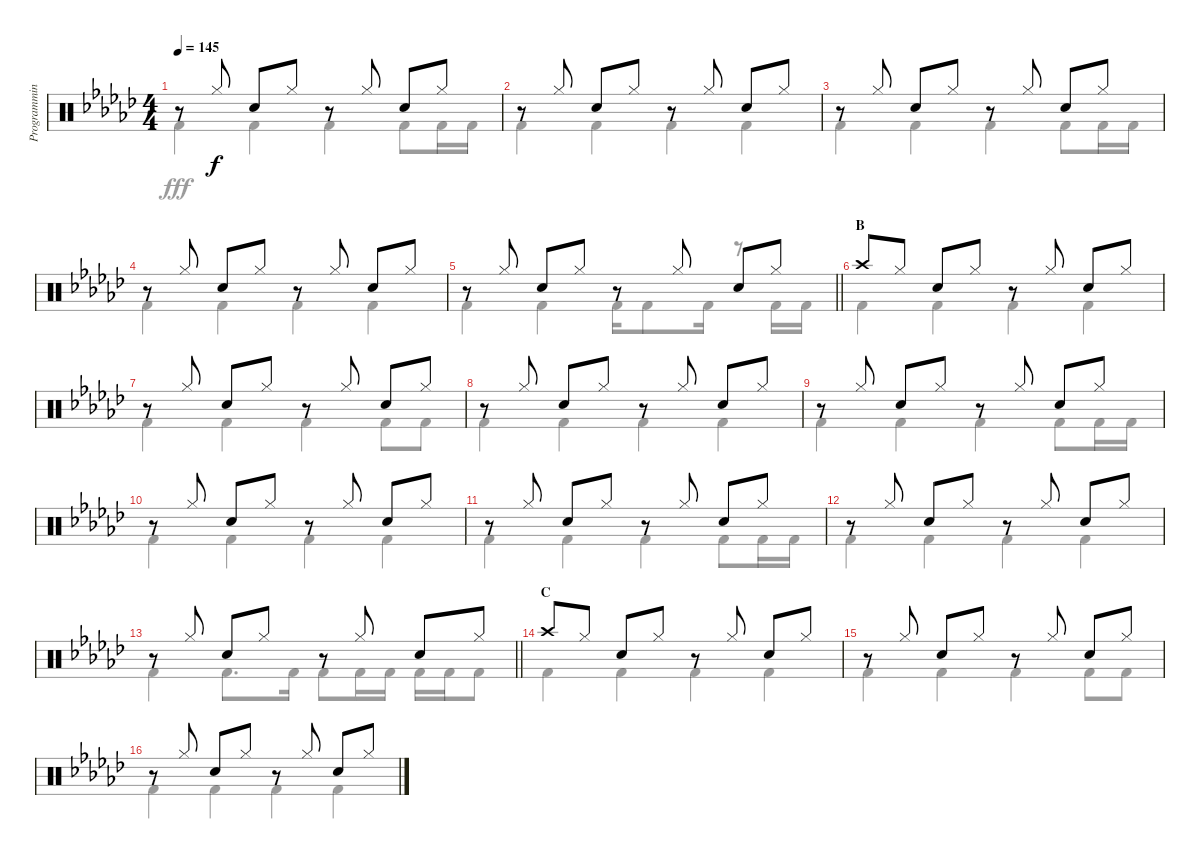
\track ("Programming Drums I" "Programmin") {instrument percussion}
\staff {score}
\articulation defaults
\voice
\ts (4 4)
\tempo 145
\clef neutral
\ks gb
r.8{dy f} "Hi-Hat (closed)".8 "Snare (hit) 2".8 "Hi-Hat (closed)".8 r.8 "Hi-Hat (closed)".8 "Snare (hit) 2".8 "Hi-Hat (closed)".8 |
r.8 "Hi-Hat (closed)".8 "Snare (hit) 2".8 "Hi-Hat (closed)".8 r.8 "Hi-Hat (closed)".8 "Snare (hit) 2".8 "Hi-Hat (closed)".8 |
r.8 "Hi-Hat (closed)".8 "Snare (hit) 2".8 "Hi-Hat (closed)".8 r.8 "Hi-Hat (closed)".8 "Snare (hit) 2".8 "Hi-Hat (closed)".8 |
r.8 "Hi-Hat (closed)".8 "Snare (hit) 2".8 "Hi-Hat (closed)".8 r.8 "Hi-Hat (closed)".8 "Snare (hit) 2".8 "Hi-Hat (closed)".8 |
\barLineRight lightlight
r.8 "Hi-Hat (closed)".8 "Snare (hit) 2".8 "Hi-Hat (closed)".8 r.8 "Hi-Hat (closed)".8 "Snare (hit) 2".8 "Hi-Hat (closed)".8 |
\section ("" "B")
"Crash high (hit)".8 "Hi-Hat (closed)".8 "Snare (hit) 2".8 "Hi-Hat (closed)".8 r.8 "Hi-Hat (closed)".8 "Snare (hit) 2".8 "Hi-Hat (closed)".8 |
r.8 "Hi-Hat (closed)".8 "Snare (hit) 2".8 "Hi-Hat (closed)".8 r.8 "Hi-Hat (closed)".8 "Snare (hit) 2".8 "Hi-Hat (closed)".8 |
r.8 "Hi-Hat (closed)".8 "Snare (hit) 2".8 "Hi-Hat (closed)".8 r.8 "Hi-Hat (closed)".8 "Snare (hit) 2".8 "Hi-Hat (closed)".8 |
r.8 "Hi-Hat (closed)".8 "Snare (hit) 2".8 "Hi-Hat (closed)".8 r.8 "Hi-Hat (closed)".8 "Snare (hit) 2".8 "Hi-Hat (closed)".8 |
r.8 "Hi-Hat (closed)".8 "Snare (hit) 2".8 "Hi-Hat (closed)".8 r.8 "Hi-Hat (closed)".8 "Snare (hit) 2".8 "Hi-Hat (closed)".8 |
r.8 "Hi-Hat (closed)".8 "Snare (hit) 2".8 "Hi-Hat (closed)".8 r.8 "Hi-Hat (closed)".8 "Snare (hit) 2".8 "Hi-Hat (closed)".8 |
r.8 "Hi-Hat (closed)".8 "Snare (hit) 2".8 "Hi-Hat (closed)".8 r.8 "Hi-Hat (closed)".8 "Snare (hit) 2".8 "Hi-Hat (closed)".8 |
\barLineRight lightlight
r.8 "Hi-Hat (closed)".8 "Snare (hit) 2".8 "Hi-Hat (closed)".8 r.8 "Hi-Hat (closed)".8 "Snare (hit) 2".8 "Hi-Hat (closed)".8 |
\section ("" "C")
"Crash high (hit)".8 "Hi-Hat (closed)".8 "Snare (hit) 2".8 "Hi-Hat (closed)".8 r.8 "Hi-Hat (closed)".8 "Snare (hit) 2".8 "Hi-Hat (closed)".8 |
r.8 "Hi-Hat (closed)".8 "Snare (hit) 2".8 "Hi-Hat (closed)".8 r.8 "Hi-Hat (closed)".8 "Snare (hit) 2".8 "Hi-Hat (closed)".8 |
r.8 "Hi-Hat (closed)".8 "Snare (hit) 2".8 "Hi-Hat (closed)".8 r.8 "Hi-Hat (closed)".8 "Snare (hit) 2".8 "Hi-Hat (closed)".8
\voice
\clef neutral
\ottava regular
\simile none
\ks gb "Kick (hit) 2".4{dy fff} "Kick (hit) 2".4 "Kick (hit) 2".4 "Kick (hit) 2".8 "Kick (hit) 2".16 "Kick (hit) 2".16
|
"Kick (hit) 2".4 "Kick (hit) 2".4 "Kick (hit) 2".4 "Kick (hit) 2".4 |
"Kick (hit) 2".4 "Kick (hit) 2".4 "Kick (hit) 2".4 "Kick (hit) 2".8 "Kick (hit) 2".16 "Kick (hit) 2".16 |
"Kick (hit) 2".4 "Kick (hit) 2".4 "Kick (hit) 2".4 "Kick (hit) 2".4 |
\barLineRight lightlight "Kick (hit) 2".4 "Kick (hit) 2".4 "Kick (hit) 2".16 "Kick (hit) 2".8 "Kick (hit) 2".16
r.8 "Kick (hit) 2".16 "Kick (hit) 2".16 |
"Kick (hit) 2".4 "Kick (hit) 2".4 "Kick (hit) 2".4 "Kick (hit) 2".4 |
"Kick (hit) 2".4 "Kick (hit) 2".4 "Kick (hit) 2".4 "Kick (hit) 2".8 "Kick (hit) 2".8 |
"Kick (hit) 2".4 "Kick (hit) 2".4 "Kick (hit) 2".4 "Kick (hit) 2".4 |
"Kick (hit) 2".4 "Kick (hit) 2".4 "Kick (hit) 2".4 "Kick (hit) 2".8 "Kick (hit) 2".16 "Kick (hit) 2".16 |
"Kick (hit) 2".4 "Kick (hit) 2".4 "Kick (hit) 2".4 "Kick (hit) 2".4 |
"Kick (hit) 2".4 "Kick (hit) 2".4 "Kick (hit) 2".4 "Kick (hit) 2".8 "Kick (hit) 2".16 "Kick (hit) 2".16 |
"Kick (hit) 2".4 "Kick (hit) 2".4 "Kick (hit) 2".4 "Kick (hit) 2".4 |
\barLineRight lightlight "Kick (hit) 2".4 "Kick (hit) 2".8{d} "Kick (hit) 2".16 "Kick (hit) 2".8 "Kick (hit) 2".16 "Kick (hit) 2".16 "Kick (hit) 2".16 "Kick (hit) 2".16 "Kick (hit) 2".8
|
"Kick (hit) 2".4 "Kick (hit) 2".4 "Kick (hit) 2".4 "Kick (hit) 2".4 |
"Kick (hit) 2".4 "Kick (hit) 2".4 "Kick (hit) 2".4 "Kick (hit) 2".8 "Kick (hit) 2".8 |
"Kick (hit) 2".4 "Kick (hit) 2".4 "Kick (hit) 2".4 "Kick (hit) 2".4
